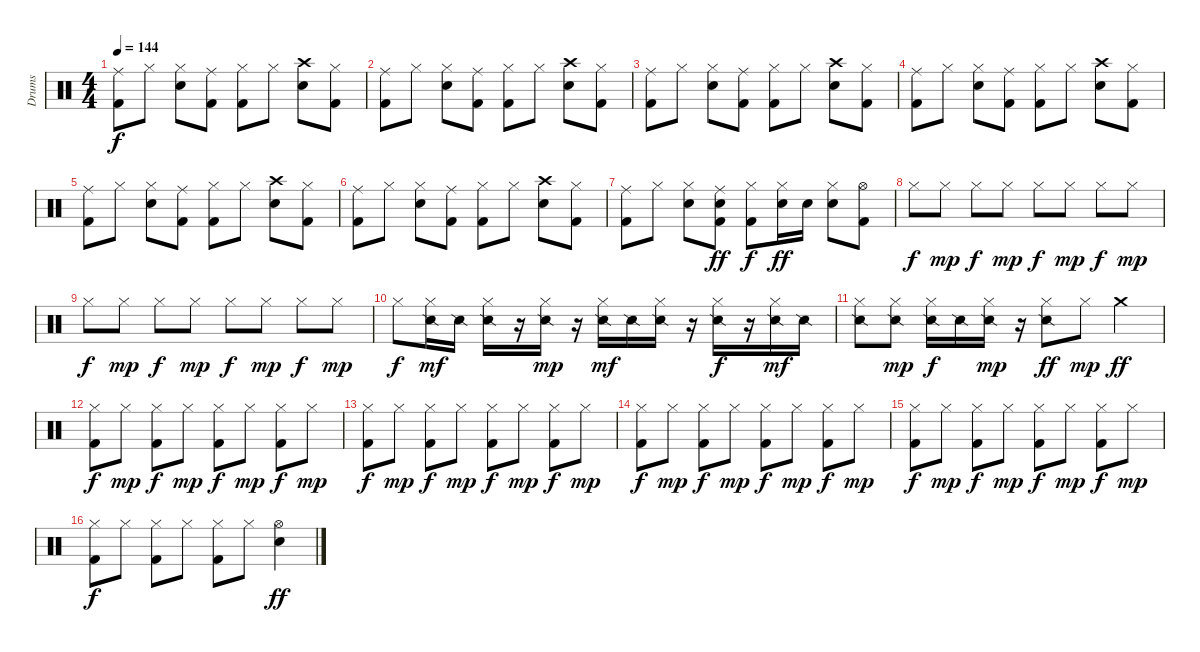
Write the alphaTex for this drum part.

\track ("Drums" "Drums") {instrument percussion}
\staff {score}
\articulation defaults
\ts (4 4)
\tempo 144
\clef neutral
\ks c
("Ride (middle)" "Kick (hit) 2").8{dy f} "Hi-Hat (closed)".8 ("Hi-Hat (closed)" "Snare (hit) 2").8 ("Ride (middle)" "Kick (hit) 2").8 ("Hi-Hat (closed)" "Kick (hit) 2").8 "Hi-Hat (closed)".8 ("Crash high (hit)" "Snare (hit) 2").8 ("Hi-Hat (closed)" "Kick (hit) 2").8 |
("Ride (middle)" "Kick (hit) 2").8 "Hi-Hat (closed)".8 ("Hi-Hat (closed)" "Snare (hit) 2").8 ("Ride (middle)" "Kick (hit) 2").8 ("Hi-Hat (closed)" "Kick (hit) 2").8 "Hi-Hat (closed)".8 ("Crash high (hit)" "Snare (hit) 2").8 ("Hi-Hat (closed)" "Kick (hit) 2").8 |
("Ride (middle)" "Kick (hit) 2").8 "Hi-Hat (closed)".8 ("Hi-Hat (closed)" "Snare (hit) 2").8 ("Ride (middle)" "Kick (hit) 2").8 ("Hi-Hat (closed)" "Kick (hit) 2").8 "Hi-Hat (closed)".8 ("Crash high (hit)" "Snare (hit) 2").8 ("Hi-Hat (closed)" "Kick (hit) 2").8 |
("Ride (middle)" "Kick (hit) 2").8 "Hi-Hat (closed)".8 ("Hi-Hat (closed)" "Snare (hit) 2").8 ("Ride (middle)" "Kick (hit) 2").8 ("Hi-Hat (closed)" "Kick (hit) 2").8 "Hi-Hat (closed)".8 ("Crash high (hit)" "Snare (hit) 2").8 ("Hi-Hat (closed)" "Kick (hit) 2").8 |
("Ride (middle)" "Kick (hit) 2").8 "Hi-Hat (closed)".8 ("Hi-Hat (closed)" "Snare (hit) 2").8 ("Ride (middle)" "Kick (hit) 2").8 ("Hi-Hat (closed)" "Kick (hit) 2").8 "Hi-Hat (closed)".8 ("Crash high (hit)" "Snare (hit) 2").8 ("Hi-Hat (closed)" "Kick (hit) 2").8 |
("Ride (middle)" "Kick (hit) 2").8 "Hi-Hat (closed)".8 ("Hi-Hat (closed)" "Snare (hit) 2").8 ("Ride (middle)" "Kick (hit) 2").8 ("Hi-Hat (closed)" "Kick (hit) 2").8 "Hi-Hat (closed)".8 ("Crash high (hit)" "Snare (hit) 2").8 ("Hi-Hat (closed)" "Kick (hit) 2").8 |
("Ride (middle)" "Kick (hit) 2").8 "Hi-Hat (closed)".8 ("Hi-Hat (closed)" "Snare (hit) 2").8 ("Ride (middle)" "Snare (hit) 2" "Kick (hit) 2").8{dy ff} ("Hi-Hat (closed)" "Kick (hit) 2").8{dy f} ("Hi-Hat (closed)" "Snare (hit) 2").16{dy ff} "Snare (hit) 2".16 ("Hi-Hat (closed)" "Snare (hit) 2").8 ("Hi-Hat (open)" "Kick (hit) 2").8 |
"Hi-Hat (closed)".8{dy f} "Hi-Hat (closed)".8{dy mp} "Hi-Hat (closed)".8{dy f} "Hi-Hat (closed)".8{dy mp} "Hi-Hat (closed)".8{dy f} "Hi-Hat (closed)".8{dy mp} "Hi-Hat (closed)".8{dy f} "Hi-Hat (closed)".8{dy mp} |
"Hi-Hat (closed)".8{dy f} "Hi-Hat (closed)".8{dy mp} "Hi-Hat (closed)".8{dy f} "Hi-Hat (closed)".8{dy mp} "Hi-Hat (closed)".8{dy f} "Hi-Hat (closed)".8{dy mp} "Hi-Hat (closed)".8{dy f} "Hi-Hat (closed)".8{dy mp} |
"Hi-Hat (closed)".8{dy f} ("Hi-Hat (closed)" "Snare (side stick) 2").16{dy mf} "Snare (side stick) 2".16 ("Hi-Hat (closed)" "Snare (side stick) 2").16 r.16 ("Hi-Hat (closed)" "Snare (side stick) 2").16{dy mp} r.16 ("Hi-Hat (closed)" "Snare (side stick) 2").16{dy mf} "Snare (side stick) 2".16 ("Hi-Hat (closed)" "Snare (side stick) 2").16 r.16 ("Hi-Hat (closed)" "Snare (side stick) 2").16{dy f} r.16 ("Hi-Hat (closed)" "Snare (side stick) 2").16{dy mf} "Snare (side stick) 2".16 |
("Hi-Hat (closed)" "Snare (side stick) 2").8 ("Hi-Hat (closed)" "Snare (side stick) 2").8{dy mp} ("Hi-Hat (closed)" "Snare (side stick) 2").16{dy f} "Snare (side stick) 2".16 ("Hi-Hat (closed)" "Snare (side stick) 2").16{dy mp} r.16 ("Hi-Hat (closed)" "Snare (side stick) 2").8{dy ff} "Hi-Hat (closed)".8{dy mp} "Crash medium (hit)".4{dy ff} |
("Hi-Hat (closed)" "Kick (hit) 2").8{dy f} "Hi-Hat (closed)".8{dy mp} ("Hi-Hat (closed)" "Kick (hit) 2").8{dy f} "Hi-Hat (closed)".8{dy mp} ("Hi-Hat (closed)" "Kick (hit) 2").8{dy f} "Hi-Hat (closed)".8{dy mp} ("Hi-Hat (closed)" "Kick (hit) 2").8{dy f} "Hi-Hat (closed)".8{dy mp} |
("Hi-Hat (closed)" "Kick (hit) 2").8{dy f} "Hi-Hat (closed)".8{dy mp} ("Hi-Hat (closed)" "Kick (hit) 2").8{dy f} "Hi-Hat (closed)".8{dy mp} ("Hi-Hat (closed)" "Kick (hit) 2").8{dy f} "Hi-Hat (closed)".8{dy mp} ("Hi-Hat (closed)" "Kick (hit) 2").8{dy f} "Hi-Hat (closed)".8{dy mp} |
("Hi-Hat (closed)" "Kick (hit) 2").8{dy f} "Hi-Hat (closed)".8{dy mp} ("Hi-Hat (closed)" "Kick (hit) 2").8{dy f} "Hi-Hat (closed)".8{dy mp} ("Hi-Hat (closed)" "Kick (hit) 2").8{dy f} "Hi-Hat (closed)".8{dy mp} ("Hi-Hat (closed)" "Kick (hit) 2").8{dy f} "Hi-Hat (closed)".8{dy mp} |
("Hi-Hat (closed)" "Kick (hit) 2").8{dy f} "Hi-Hat (closed)".8{dy mp} ("Hi-Hat (closed)" "Kick (hit) 2").8{dy f} "Hi-Hat (closed)".8{dy mp} ("Hi-Hat (closed)" "Kick (hit) 2").8{dy f} "Hi-Hat (closed)".8{dy mp} ("Hi-Hat (closed)" "Kick (hit) 2").8{dy f} "Hi-Hat (closed)".8{dy mp} |
("Hi-Hat (closed)" "Kick (hit) 2").8{dy f} "Hi-Hat (closed)".8 ("Hi-Hat (closed)" "Kick (hit) 2").8 "Hi-Hat (closed)".8 ("Hi-Hat (closed)" "Kick (hit) 2").8 "Hi-Hat (closed)".8 ("Hi-Hat (open)" "Snare (hit) 2").4{dy ff}
